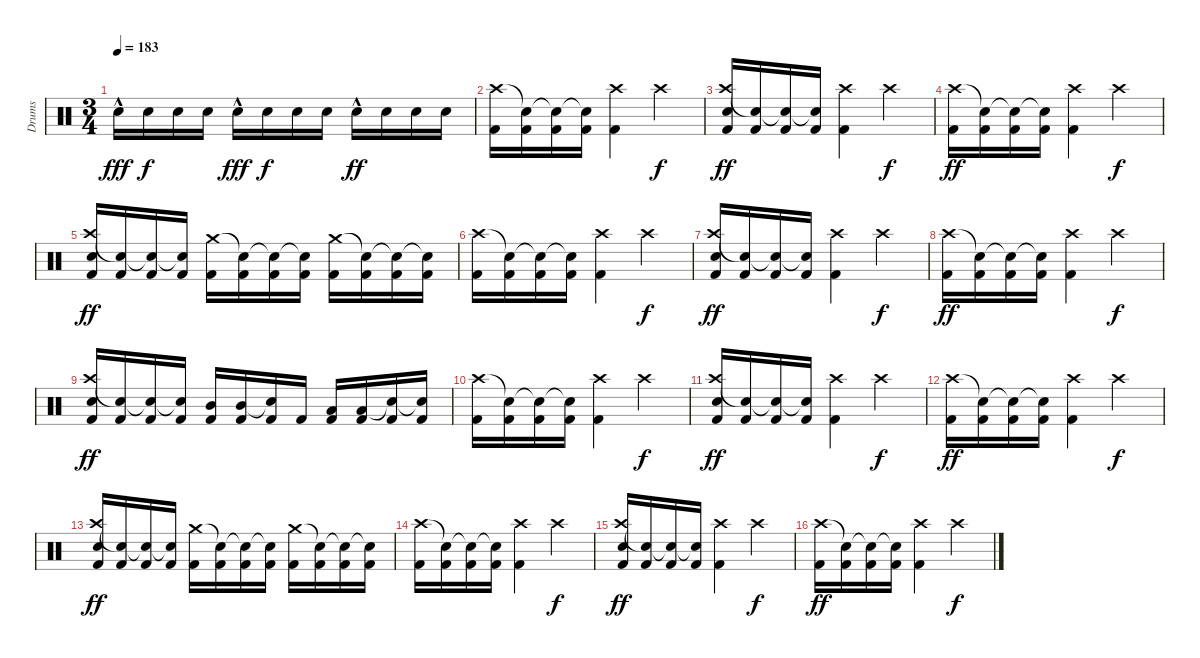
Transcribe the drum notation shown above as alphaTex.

\track ("Drums" "Drums") {instrument percussion}
\staff {score}
\articulation defaults
\ts (3 4)
\tempo 183
\clef neutral
\ks c "Snare (hit) 2"{hac}.16{dy fff} "Snare (hit) 2".16{dy f} "Snare (hit) 2".16 "Snare (hit) 2".16 "Snare (hit) 2"{hac}.16{dy fff} "Snare (hit) 2".16{dy f} "Snare (hit) 2".16 "Snare (hit) 2".16 "Snare (hit) 2"{hac}.16{dy ff} "Snare (hit) 2".16 "Snare (hit) 2".16 "Snare (hit) 2".16
|
("Crash high (hit)" "Kick (hit) 2").16 ("Snare (hit)"{t} "Kick (hit) 2").16 ("Snare (hit)"{t} "Kick (hit) 2").16 ("Snare (hit)"{t} "Kick (hit) 2").16 ("Crash high (hit)" "Kick (hit) 2").4 "Crash high (hit)".4{dy f} |
("Crash high (hit)" "Snare (hit) 2" "Kick (hit) 2").16{dy ff} ("Snare (hit)"{t} "Kick (hit) 2").16 ("Snare (hit)"{t} "Kick (hit) 2").16 ("Snare (hit)"{t} "Kick (hit) 2").16 ("Crash high (hit)" "Kick (hit) 2").4 "Crash high (hit)".4{dy f} |
("Crash high (hit)" "Kick (hit) 2").16{dy ff} ("Snare (hit)"{t} "Kick (hit) 2").16 ("Snare (hit)"{t} "Kick (hit) 2").16 ("Snare (hit)"{t} "Kick (hit) 2").16 ("Crash high (hit)" "Kick (hit) 2").4 "Crash high (hit)".4{dy f} |
("Crash high (hit)" "Snare (hit) 2" "Kick (hit) 2").16{dy ff} ("Snare (hit)"{t} "Kick (hit) 2").16 ("Snare (hit)"{t} "Kick (hit) 2").16 ("Snare (hit)"{t} "Kick (hit) 2").16 ("Crash medium (hit)" "Kick (hit) 2").16 ("Snare (hit)"{t} "Kick (hit) 2").16 ("Snare (hit)"{t} "Kick (hit) 2").16 ("Snare (hit)"{t} "Kick (hit) 2").16 ("Crash medium (hit)" "Kick (hit) 2").16 ("Snare (hit)"{t} "Kick (hit) 2").16 ("Snare (hit)"{t} "Kick (hit) 2").16 ("Snare (hit)"{t} "Kick (hit) 2").16 |
("Crash high (hit)" "Kick (hit) 2").16 ("Snare (hit)"{t} "Kick (hit) 2").16 ("Snare (hit)"{t} "Kick (hit) 2").16 ("Snare (hit)"{t} "Kick (hit) 2").16 ("Crash high (hit)" "Kick (hit) 2").4 "Crash high (hit)".4{dy f} |
("Crash high (hit)" "Snare (hit) 2" "Kick (hit) 2").16{dy ff} ("Snare (hit)"{t} "Kick (hit) 2").16 ("Snare (hit)"{t} "Kick (hit) 2").16 ("Snare (hit)"{t} "Kick (hit) 2").16 ("Crash high (hit)" "Kick (hit) 2").4 "Crash high (hit)".4{dy f} |
("Crash high (hit)" "Kick (hit) 2").16{dy ff} ("Snare (hit)"{t} "Kick (hit) 2").16 ("Snare (hit)"{t} "Kick (hit) 2").16 ("Snare (hit)"{t} "Kick (hit) 2").16 ("Crash high (hit)" "Kick (hit) 2").4 "Crash high (hit)".4{dy f} |
("Crash high (hit)" "Snare (hit) 2" "Kick (hit) 2").16{dy ff} ("Snare (hit)"{t} "Kick (hit) 2").16 ("Snare (hit)"{t} "Kick (hit) 2").16 ("Snare (hit)"{t} "Kick (hit) 2").16 ("Mid Tom (hit)" "Kick (hit) 2").16 ("Mid Tom (hit)" "Kick (hit) 2").16 ("Snare (hit)"{t} "Kick (hit) 2").16 "Kick (hit) 2".16 ("Low Tom (hit)" "Kick (hit) 2").16 ("Low Tom (hit)" "Kick (hit) 2").16 ("Snare (hit)"{t} "Kick (hit) 2").16 ("Snare (hit)"{t} "Kick (hit) 2").16 |
("Crash high (hit)" "Kick (hit) 2").16 ("Snare (hit)"{t} "Kick (hit) 2").16 ("Snare (hit)"{t} "Kick (hit) 2").16 ("Snare (hit)"{t} "Kick (hit) 2").16 ("Crash high (hit)" "Kick (hit) 2").4 "Crash high (hit)".4{dy f} |
("Crash high (hit)" "Snare (hit) 2" "Kick (hit) 2").16{dy ff} ("Snare (hit)"{t} "Kick (hit) 2").16 ("Snare (hit)"{t} "Kick (hit) 2").16 ("Snare (hit)"{t} "Kick (hit) 2").16 ("Crash high (hit)" "Kick (hit) 2").4 "Crash high (hit)".4{dy f} |
("Crash high (hit)" "Kick (hit) 2").16{dy ff} ("Snare (hit)"{t} "Kick (hit) 2").16 ("Snare (hit)"{t} "Kick (hit) 2").16 ("Snare (hit)"{t} "Kick (hit) 2").16 ("Crash high (hit)" "Kick (hit) 2").4 "Crash high (hit)".4{dy f} |
("Crash high (hit)" "Snare (hit) 2" "Kick (hit) 2").16{dy ff} ("Snare (hit)"{t} "Kick (hit) 2").16 ("Snare (hit)"{t} "Kick (hit) 2").16 ("Snare (hit)"{t} "Kick (hit) 2").16 ("Crash medium (hit)" "Kick (hit) 2").16 ("Snare (hit)"{t} "Kick (hit) 2").16 ("Snare (hit)"{t} "Kick (hit) 2").16 ("Snare (hit)"{t} "Kick (hit) 2").16 ("Crash medium (hit)" "Kick (hit) 2").16 ("Snare (hit)"{t} "Kick (hit) 2").16 ("Snare (hit)"{t} "Kick (hit) 2").16 ("Snare (hit)"{t} "Kick (hit) 2").16 |
("Crash high (hit)" "Kick (hit) 2").16 ("Snare (hit)"{t} "Kick (hit) 2").16 ("Snare (hit)"{t} "Kick (hit) 2").16 ("Snare (hit)"{t} "Kick (hit) 2").16 ("Crash high (hit)" "Kick (hit) 2").4 "Crash high (hit)".4{dy f} |
("Crash high (hit)" "Snare (hit) 2" "Kick (hit) 2").16{dy ff} ("Snare (hit)"{t} "Kick (hit) 2").16 ("Snare (hit)"{t} "Kick (hit) 2").16 ("Snare (hit)"{t} "Kick (hit) 2").16 ("Crash high (hit)" "Kick (hit) 2").4 "Crash high (hit)".4{dy f} |
("Crash high (hit)" "Kick (hit) 2").16{dy ff} ("Snare (hit)"{t} "Kick (hit) 2").16 ("Snare (hit)"{t} "Kick (hit) 2").16 ("Snare (hit)"{t} "Kick (hit) 2").16 ("Crash high (hit)" "Kick (hit) 2").4 "Crash high (hit)".4{dy f}
